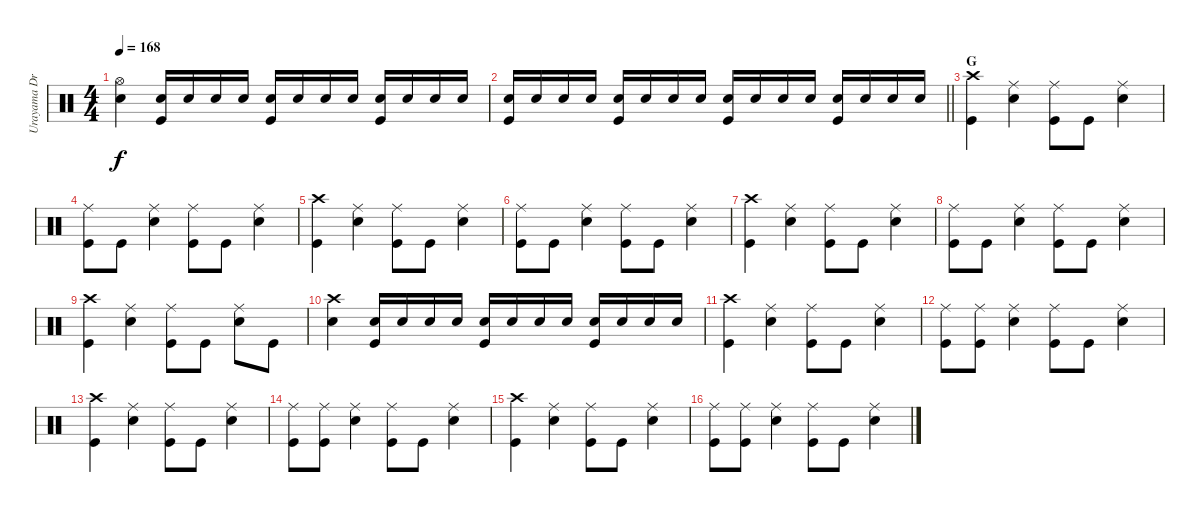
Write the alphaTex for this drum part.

\track ("Urayama Drums" "Urayama Dr") {instrument percussion}
\staff {score}
\articulation defaults
\ts (4 4)
\tempo 168
\clef neutral
\ks c
("Hi-Hat (open)" "Electric Snare (hit)").4{dy f} ("Electric Snare (hit)" "Kick (hit)").16 "Electric Snare (hit)".16 "Electric Snare (hit)".16 "Electric Snare (hit)".16 ("Electric Snare (hit)" "Kick (hit)").16 "Electric Snare (hit)".16 "Electric Snare (hit)".16 "Electric Snare (hit)".16 ("Electric Snare (hit)" "Kick (hit)").16 "Electric Snare (hit)".16 "Electric Snare (hit)".16 "Electric Snare (hit)".16 |
\barLineRight lightlight
("Electric Snare (hit)" "Kick (hit)").16 "Electric Snare (hit)".16 "Electric Snare (hit)".16 "Electric Snare (hit)".16 ("Electric Snare (hit)" "Kick (hit)").16 "Electric Snare (hit)".16 "Electric Snare (hit)".16 "Electric Snare (hit)".16 ("Electric Snare (hit)" "Kick (hit)").16 "Electric Snare (hit)".16 "Electric Snare (hit)".16 "Electric Snare (hit)".16 ("Electric Snare (hit)" "Kick (hit)").16 "Electric Snare (hit)".16 "Electric Snare (hit)".16 "Electric Snare (hit)".16 |
\section ("" "G")
("Crash high (hit)" "Kick (hit)").4 ("Ride (middle)" "Electric Snare (hit)").4 ("Ride (middle)" "Kick (hit)").8 "Kick (hit)".8 ("Ride (middle)" "Electric Snare (hit)").4 |
("Ride (middle)" "Kick (hit)").8 "Kick (hit)".8 ("Ride (middle)" "Electric Snare (hit)").4 ("Ride (middle)" "Kick (hit)").8 "Kick (hit)".8 ("Ride (middle)" "Electric Snare (hit)").4 |
("Crash high (hit)" "Kick (hit)").4 ("Ride (middle)" "Electric Snare (hit)").4 ("Ride (middle)" "Kick (hit)").8 "Kick (hit)".8 ("Ride (middle)" "Electric Snare (hit)").4 |
("Ride (middle)" "Kick (hit)").8 "Kick (hit)".8 ("Ride (middle)" "Electric Snare (hit)").4 ("Ride (middle)" "Kick (hit)").8 "Kick (hit)".8 ("Ride (middle)" "Electric Snare (hit)").4 |
("Crash high (hit)" "Kick (hit)").4 ("Ride (middle)" "Electric Snare (hit)").4 ("Ride (middle)" "Kick (hit)").8 "Kick (hit)".8 ("Ride (middle)" "Electric Snare (hit)").4 |
("Ride (middle)" "Kick (hit)").8 "Kick (hit)".8 ("Ride (middle)" "Electric Snare (hit)").4 ("Ride (middle)" "Kick (hit)").8 "Kick (hit)".8 ("Ride (middle)" "Electric Snare (hit)").4 |
("Crash high (hit)" "Kick (hit)").4 ("Ride (middle)" "Electric Snare (hit)").4 ("Ride (middle)" "Kick (hit)").8 "Kick (hit)".8 ("Ride (middle)" "Electric Snare (hit)").8 "Kick (hit)".8 |
("Crash high (hit)" "Electric Snare (hit)").4 ("Electric Snare (hit)" "Kick (hit)").16 "Electric Snare (hit)".16 "Electric Snare (hit)".16 "Electric Snare (hit)".16 ("Electric Snare (hit)" "Kick (hit)").16 "Electric Snare (hit)".16 "Electric Snare (hit)".16 "Electric Snare (hit)".16 ("Electric Snare (hit)" "Kick (hit)").16 "Electric Snare (hit)".16 "Electric Snare (hit)".16 "Electric Snare (hit)".16 |
("Crash high (hit)" "Kick (hit)").4 ("Ride (middle)" "Electric Snare (hit)").4 ("Ride (middle)" "Kick (hit)").8 "Kick (hit)".8 ("Ride (middle)" "Electric Snare (hit)").4 |
("Ride (middle)" "Kick (hit)").8 ("Ride (middle)" "Kick (hit)").8 ("Ride (middle)" "Electric Snare (hit)").4 ("Ride (middle)" "Kick (hit)").8 "Kick (hit)".8 ("Ride (middle)" "Electric Snare (hit)").4 |
("Crash high (hit)" "Kick (hit)").4 ("Ride (middle)" "Electric Snare (hit)").4 ("Ride (middle)" "Kick (hit)").8 "Kick (hit)".8 ("Ride (middle)" "Electric Snare (hit)").4 |
("Ride (middle)" "Kick (hit)").8 ("Ride (middle)" "Kick (hit)").8 ("Ride (middle)" "Electric Snare (hit)").4 ("Ride (middle)" "Kick (hit)").8 "Kick (hit)".8 ("Ride (middle)" "Electric Snare (hit)").4 |
("Crash high (hit)" "Kick (hit)").4 ("Ride (middle)" "Electric Snare (hit)").4 ("Ride (middle)" "Kick (hit)").8 "Kick (hit)".8 ("Ride (middle)" "Electric Snare (hit)").4 |
("Ride (middle)" "Kick (hit)").8 ("Ride (middle)" "Kick (hit)").8 ("Ride (middle)" "Electric Snare (hit)").4 ("Ride (middle)" "Kick (hit)").8 "Kick (hit)".8 ("Ride (middle)" "Electric Snare (hit)").4
